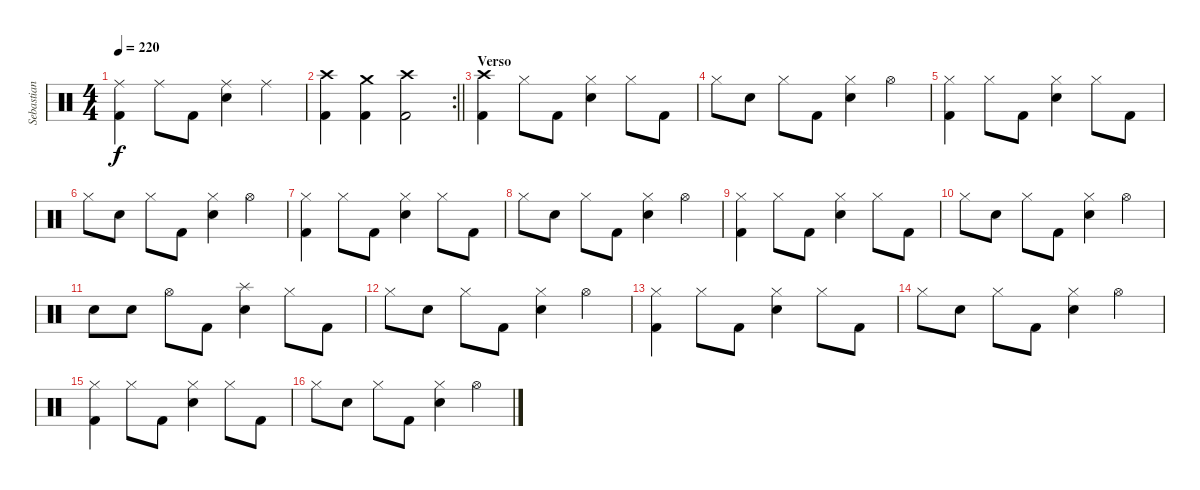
\track ("Sebastian" "Sebastian") {instrument percussion}
\staff {score}
\articulation defaults
\ts (4 4)
\tempo 220
\clef neutral
\ks c
("Ride (middle)" "Kick (hit) 2").4{dy f} "Ride (middle)".8 "Kick (hit) 2".8 ("Ride (middle)" "Snare (hit) 2").4 "Ride (middle)".4 |
\rc 2
\barLineRight lightlight
("Crash high (hit)" "Kick (hit) 2").4 ("Crash medium (hit)" "Kick (hit) 2").4 ("Crash high (hit)" "Kick (hit) 2").2 |
\section ("" "Verso")
("Crash high (hit)" "Kick (hit) 2").4 "Hi-Hat (closed)".8 "Kick (hit) 2".8 ("Hi-Hat (closed)" "Snare (hit) 2").4 "Hi-Hat (closed)".8 "Kick (hit) 2".8 |
"Hi-Hat (closed)".8 "Snare (hit) 2".8 "Hi-Hat (closed)".8 "Kick (hit) 2".8 ("Hi-Hat (closed)" "Snare (hit) 2").4 "Hi-Hat (open)".4 |
("Hi-Hat (closed)" "Kick (hit) 2").4 "Hi-Hat (closed)".8 "Kick (hit) 2".8 ("Hi-Hat (closed)" "Snare (hit) 2").4 "Hi-Hat (closed)".8 "Kick (hit) 2".8 |
"Hi-Hat (closed)".8 "Snare (hit) 2".8 "Hi-Hat (closed)".8 "Kick (hit) 2".8 ("Hi-Hat (closed)" "Snare (hit) 2").4 "Hi-Hat (open)".4 |
("Hi-Hat (closed)" "Kick (hit) 2").4 "Hi-Hat (closed)".8 "Kick (hit) 2".8 ("Hi-Hat (closed)" "Snare (hit) 2").4 "Hi-Hat (closed)".8 "Kick (hit) 2".8 |
"Hi-Hat (closed)".8 "Snare (hit) 2".8 "Hi-Hat (closed)".8 "Kick (hit) 2".8 ("Hi-Hat (closed)" "Snare (hit) 2").4 "Hi-Hat (open)".4 |
("Hi-Hat (closed)" "Kick (hit) 2").4 "Hi-Hat (closed)".8 "Kick (hit) 2".8 ("Hi-Hat (closed)" "Snare (hit) 2").4 "Hi-Hat (closed)".8 "Kick (hit) 2".8 |
"Hi-Hat (closed)".8 "Snare (hit) 2".8 "Hi-Hat (closed)".8 "Kick (hit) 2".8 ("Hi-Hat (closed)" "Snare (hit) 2").4 "Hi-Hat (open)".4 |
"Snare (hit) 2".8 "Snare (hit) 2".8 "Hi-Hat (open)".8 "Kick (hit) 2".8 ("Splash (hit)" "Snare (hit) 2").4 "Hi-Hat (closed)".8 "Kick (hit) 2".8 |
"Hi-Hat (closed)".8 "Snare (hit) 2".8 "Hi-Hat (closed)".8 "Kick (hit) 2".8 ("Hi-Hat (closed)" "Snare (hit) 2").4 "Hi-Hat (open)".4 |
("Hi-Hat (closed)" "Kick (hit) 2").4 "Hi-Hat (closed)".8 "Kick (hit) 2".8 ("Hi-Hat (closed)" "Snare (hit) 2").4 "Hi-Hat (closed)".8 "Kick (hit) 2".8 |
"Hi-Hat (closed)".8 "Snare (hit) 2".8 "Hi-Hat (closed)".8 "Kick (hit) 2".8 ("Hi-Hat (closed)" "Snare (hit) 2").4 "Hi-Hat (open)".4 |
("Hi-Hat (closed)" "Kick (hit) 2").4 "Hi-Hat (closed)".8 "Kick (hit) 2".8 ("Hi-Hat (closed)" "Snare (hit) 2").4 "Hi-Hat (closed)".8 "Kick (hit) 2".8 |
"Hi-Hat (closed)".8 "Snare (hit) 2".8 "Hi-Hat (closed)".8 "Kick (hit) 2".8 ("Hi-Hat (closed)" "Snare (hit) 2").4 "Hi-Hat (open)".4
